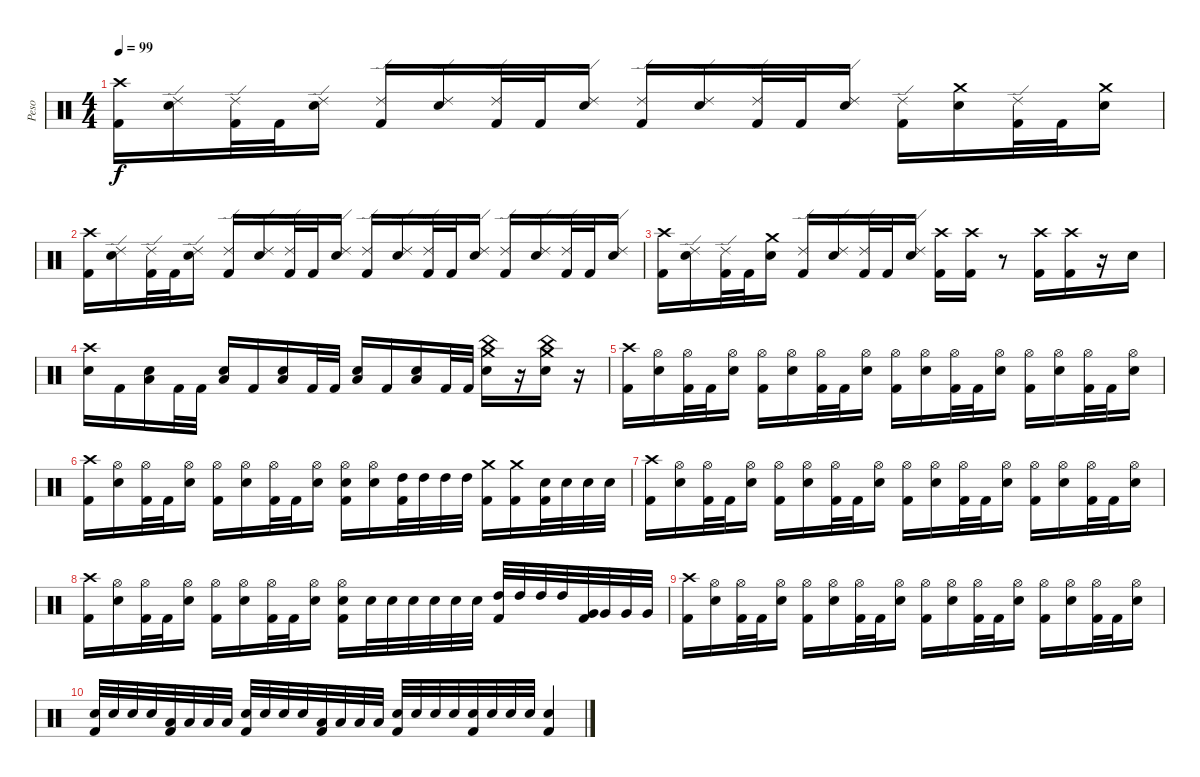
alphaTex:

\track ("Peso" "Peso") {instrument percussion}
\staff {score}
\articulation defaults
\ts (4 4)
\tempo 99
\clef neutral
\ks c
("Crash high (hit)" "Kick (hit) 2").16{dy f} ("Ride (edge) 2" "Electric Snare (hit)").16 ("Ride (edge) 2" "Kick (hit) 2").32 "Kick (hit) 2".32 ("Ride (edge) 2" "Electric Snare (hit)").16 ("Ride (edge) 2" "Kick (hit) 2").16 ("Ride (edge) 2" "Electric Snare (hit)").16 ("Ride (edge) 2" "Kick (hit) 2").32 "Kick (hit) 2".32 ("Ride (edge) 2" "Electric Snare (hit)").16 ("Ride (edge) 2" "Kick (hit) 2").16 ("Ride (edge) 2" "Electric Snare (hit)").16 ("Ride (edge) 2" "Kick (hit) 2").32 "Kick (hit) 2".32 ("Ride (edge) 2" "Electric Snare (hit)").16 ("Ride (edge) 2" "Kick (hit) 2").16 ("Crash medium (hit)" "Electric Snare (hit)").16 ("Ride (edge) 2" "Kick (hit) 2").32 "Kick (hit) 2".32 ("Crash medium (hit)" "Electric Snare (hit)").16 |
("Crash high (hit)" "Kick (hit) 2").16 ("Ride (edge) 2" "Electric Snare (hit)").16 ("Ride (edge) 2" "Kick (hit) 2").32 "Kick (hit) 2".32 ("Ride (edge) 2" "Electric Snare (hit)").16 ("Ride (edge) 2" "Kick (hit) 2").16 ("Ride (edge) 2" "Electric Snare (hit)").16 ("Ride (edge) 2" "Kick (hit) 2").32 "Kick (hit) 2".32 ("Ride (edge) 2" "Electric Snare (hit)").16 ("Ride (edge) 2" "Kick (hit) 2").16 ("Ride (edge) 2" "Electric Snare (hit)").16 ("Ride (edge) 2" "Kick (hit) 2").32 "Kick (hit) 2".32 ("Ride (edge) 2" "Electric Snare (hit)").16 ("Ride (edge) 2" "Kick (hit) 2").16 ("Ride (edge) 2" "Electric Snare (hit)").16 ("Ride (edge) 2" "Kick (hit) 2").32 "Kick (hit) 2".32 ("Ride (edge) 2" "Electric Snare (hit)").16 |
("Crash high (hit)" "Kick (hit) 2").16 ("Ride (edge) 2" "Electric Snare (hit)").16 ("Ride (edge) 2" "Kick (hit) 2").32 "Kick (hit) 2".32 ("Crash medium (hit)" "Electric Snare (hit)").16 ("Ride (edge) 2" "Kick (hit) 2").16 ("Ride (edge) 2" "Electric Snare (hit)").16 ("Ride (edge) 2" "Kick (hit) 2").32 "Kick (hit) 2".32 ("Ride (edge) 2" "Electric Snare (hit)").16 ("Crash high (hit)" "Kick (hit) 2").16 ("Crash high (hit)" "Kick (hit) 2").16 r.8 ("Crash high (hit)" "Kick (hit) 2").16 ("Crash high (hit)" "Kick (hit) 2").16 r.16 "Electric Snare (hit)".16 |
("Crash high (hit)" "Electric Snare (hit)").16 "Kick (hit) 2".16 ("Low Floor Tom (hit)" "Electric Snare (hit)").16 "Kick (hit) 2".32 "Kick (hit) 2".32 ("Low Floor Tom (hit)" "Electric Snare (hit)").16 "Kick (hit) 2".16 ("Low Floor Tom (hit)" "Electric Snare (hit)").16 "Kick (hit) 2".32 "Kick (hit) 2".32 ("Low Floor Tom (hit)" "Electric Snare (hit)").16 "Kick (hit) 2".16 ("Low Floor Tom (hit)" "Electric Snare (hit)").16 "Kick (hit) 2".32 "Kick (hit) 2".32 ("Crash medium (hit)" "China (hit)" "Electric Snare (hit)").16 r.16 ("Crash medium (hit)" "China (hit)" "Electric Snare (hit)").16 r.16 |
("Crash high (hit)" "Kick (hit) 2").16 ("Hi-Hat (open)" "Electric Snare (hit)").16 ("Hi-Hat (open)" "Kick (hit) 2").32 "Kick (hit) 2".32 ("Hi-Hat (open)" "Electric Snare (hit)").16 ("Hi-Hat (open)" "Kick (hit) 2").16 ("Hi-Hat (open)" "Electric Snare (hit)").16 ("Hi-Hat (open)" "Kick (hit) 2").32 "Kick (hit) 2".32 ("Hi-Hat (open)" "Electric Snare (hit)").16 ("Hi-Hat (open)" "Kick (hit) 2").16 ("Hi-Hat (open)" "Electric Snare (hit)").16 ("Hi-Hat (open)" "Kick (hit) 2").32 "Kick (hit) 2".32 ("Hi-Hat (open)" "Electric Snare (hit)").16 ("Hi-Hat (open)" "Kick (hit) 2").16 ("Hi-Hat (open)" "Electric Snare (hit)").16 ("Hi-Hat (open)" "Kick (hit) 2").32 "Kick (hit) 2".32 ("Hi-Hat (open)" "Electric Snare (hit)").16 |
("Crash high (hit)" "Kick (hit) 2").16 ("Hi-Hat (open)" "Electric Snare (hit)").16 ("Hi-Hat (open)" "Kick (hit) 2").32 "Kick (hit) 2".32 ("Hi-Hat (open)" "Electric Snare (hit)").16 ("Hi-Hat (open)" "Kick (hit) 2").16 ("Hi-Hat (open)" "Electric Snare (hit)").16 ("Hi-Hat (open)" "Kick (hit) 2").32 "Kick (hit) 2".32 ("Hi-Hat (open)" "Electric Snare (hit)").16 ("Hi-Hat (open)" "Electric Snare (hit)" "Kick (hit) 2").16 ("Hi-Hat (open)" "Electric Snare (hit)").16 ("High Tom (hit)" "Kick (hit) 2").32 "High Tom (hit)".32 "High Tom (hit)".32 "High Tom (hit)".32 ("Crash medium (hit)" "Kick (hit) 2").16 ("Crash medium (hit)" "Kick (hit) 2").16 ("Electric Snare (hit)" "Kick (hit) 2").32 "Electric Snare (hit)".32 "Electric Snare (hit)".32 "Electric Snare (hit)".32 |
("Crash high (hit)" "Kick (hit) 2").16 ("Hi-Hat (open)" "Electric Snare (hit)").16 ("Hi-Hat (open)" "Kick (hit) 2").32 "Kick (hit) 2".32 ("Hi-Hat (open)" "Electric Snare (hit)").16 ("Hi-Hat (open)" "Kick (hit) 2").16 ("Hi-Hat (open)" "Electric Snare (hit)").16 ("Hi-Hat (open)" "Kick (hit) 2").32 "Kick (hit) 2".32 ("Hi-Hat (open)" "Electric Snare (hit)").16 ("Hi-Hat (open)" "Kick (hit) 2").16 ("Hi-Hat (open)" "Electric Snare (hit)").16 ("Hi-Hat (open)" "Kick (hit) 2").32 "Kick (hit) 2".32 ("Hi-Hat (open)" "Electric Snare (hit)").16 ("Hi-Hat (open)" "Kick (hit) 2").16 ("Hi-Hat (open)" "Electric Snare (hit)").16 ("Hi-Hat (open)" "Kick (hit) 2").32 "Kick (hit) 2".32 ("Hi-Hat (open)" "Electric Snare (hit)").16 |
("Crash high (hit)" "Kick (hit) 2").16 ("Hi-Hat (open)" "Electric Snare (hit)").16 ("Hi-Hat (open)" "Kick (hit) 2").32 "Kick (hit) 2".32 ("Hi-Hat (open)" "Electric Snare (hit)").16 ("Hi-Hat (open)" "Kick (hit) 2").16 ("Hi-Hat (open)" "Electric Snare (hit)").16 ("Hi-Hat (open)" "Kick (hit) 2").32 "Kick (hit) 2".32 ("Hi-Hat (open)" "Electric Snare (hit)").16 ("Hi-Hat (open)" "Electric Snare (hit)" "Kick (hit) 2").16 "Electric Snare (hit)".32 "Electric Snare (hit)".32 "Electric Snare (hit)".32 "Electric Snare (hit)".32 "Electric Snare (hit)".32 "Electric Snare (hit)".32 ("High Tom (hit)" "Kick (hit) 2").32 "High Tom (hit)".32 "High Tom (hit)".32 "High Tom (hit)".32 ("Very Low Tom (hit)" "Kick (hit) 2").32 "Very Low Tom (hit)".32 "Very Low Tom (hit)".32 "Very Low Tom (hit)".32 |
("Crash high (hit)" "Kick (hit) 2").16 ("Hi-Hat (open)" "Electric Snare (hit)").16 ("Hi-Hat (open)" "Kick (hit) 2").32 "Kick (hit) 2".32 ("Hi-Hat (open)" "Electric Snare (hit)").16 ("Hi-Hat (open)" "Kick (hit) 2").16 ("Hi-Hat (open)" "Electric Snare (hit)").16 ("Hi-Hat (open)" "Kick (hit) 2").32 "Kick (hit) 2".32 ("Hi-Hat (open)" "Electric Snare (hit)").16 ("Hi-Hat (open)" "Kick (hit) 2").16 ("Hi-Hat (open)" "Electric Snare (hit)").16 ("Hi-Hat (open)" "Kick (hit) 2").32 "Kick (hit) 2".32 ("Hi-Hat (open)" "Electric Snare (hit)").16 ("Hi-Hat (open)" "Kick (hit) 2").16 ("Hi-Hat (open)" "Electric Snare (hit)").16 ("Hi-Hat (open)" "Kick (hit) 2").32 "Kick (hit) 2".32 ("Hi-Hat (open)" "Electric Snare (hit)").16 |
("Electric Snare (hit)" "Kick (hit) 2").32 "Electric Snare (hit)".32 "Electric Snare (hit)".32 "Electric Snare (hit)".32 ("Low Tom (hit)" "Kick (hit) 2").32 "Low Tom (hit)".32 "Low Tom (hit)".32 "Low Tom (hit)".32 ("Electric Snare (hit)" "Kick (hit) 2").32 "Electric Snare (hit)".32 "Electric Snare (hit)".32 "Electric Snare (hit)".32 ("Low Tom (hit)" "Kick (hit) 2").32 "Low Tom (hit)".32 "Low Tom (hit)".32 "Low Tom (hit)".32 ("Electric Snare (hit)" "Kick (hit) 2").32 "Electric Snare (hit)".32 "Electric Snare (hit)".32 "Electric Snare (hit)".32 ("Electric Snare (hit)" "Kick (hit) 2").32 "Electric Snare (hit)".32 "Electric Snare (hit)".32 "Electric Snare (hit)".32 ("Electric Snare (hit)" "Kick (hit) 2").4
